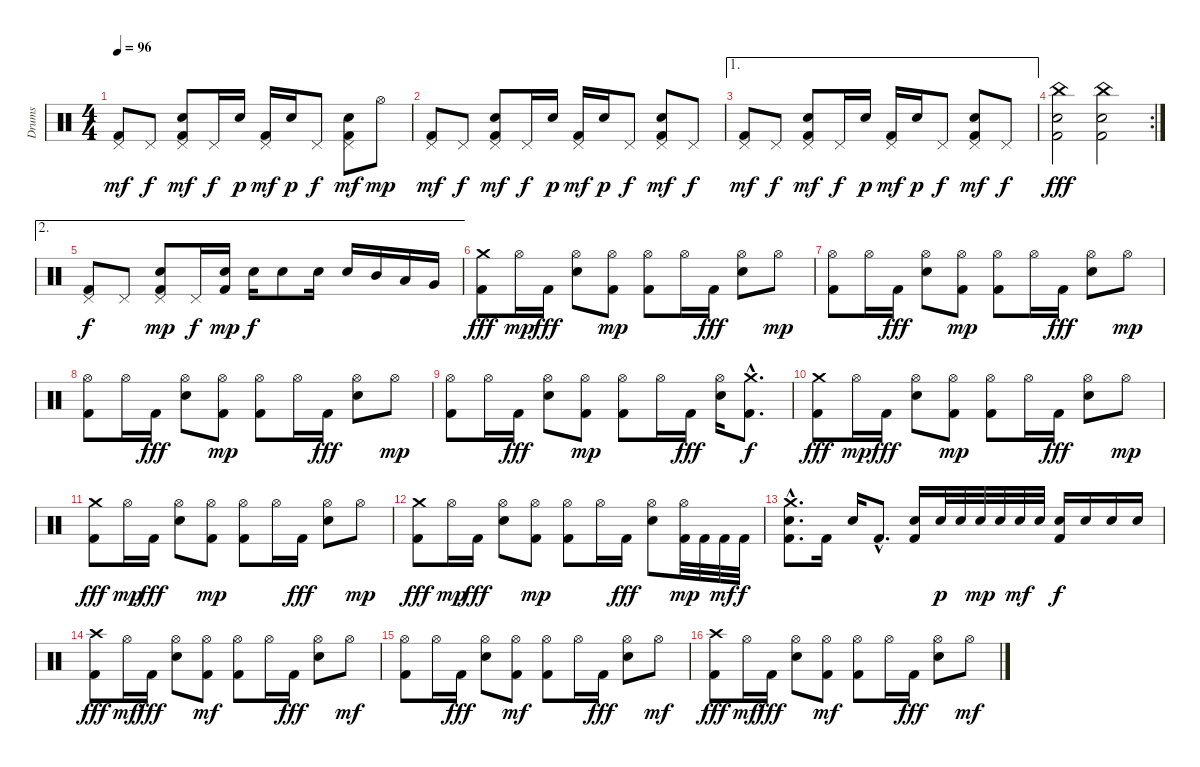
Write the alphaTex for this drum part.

\track ("Drums" "Drums") {instrument percussion}
\staff {score}
\articulation defaults
\ts (4 4)
\tempo 96
\clef neutral
\ks c
("Kick (hit) 2" "Pedal Hi-Hat (hit)").8{dy mf} "Pedal Hi-Hat (hit)".8{dy f} ("Kick (hit) 2" "Pedal Hi-Hat (hit)" "Electric Snare (hit)").8{dy mf} "Pedal Hi-Hat (hit)".16{dy f} "Electric Snare (hit)".16{dy p} ("Kick (hit) 2" "Pedal Hi-Hat (hit)").16{dy mf} "Electric Snare (hit)".16{dy p} "Pedal Hi-Hat (hit)".8{dy f} ("Kick (hit) 2" "Pedal Hi-Hat (hit)" "Electric Snare (hit)").8{dy mf} "Hi-Hat (open)".8{dy mp} |
("Kick (hit) 2" "Pedal Hi-Hat (hit)").8{dy mf} "Pedal Hi-Hat (hit)".8{dy f} ("Kick (hit) 2" "Pedal Hi-Hat (hit)" "Electric Snare (hit)").8{dy mf} "Pedal Hi-Hat (hit)".16{dy f} "Electric Snare (hit)".16{dy p} ("Kick (hit) 2" "Pedal Hi-Hat (hit)").16{dy mf} "Electric Snare (hit)".16{dy p} "Pedal Hi-Hat (hit)".8{dy f} ("Kick (hit) 2" "Pedal Hi-Hat (hit)" "Electric Snare (hit)").8{dy mf} "Pedal Hi-Hat (hit)".8{dy f} |
\ae 1
("Kick (hit) 2" "Pedal Hi-Hat (hit)").8{dy mf} "Pedal Hi-Hat (hit)".8{dy f} ("Kick (hit) 2" "Pedal Hi-Hat (hit)" "Electric Snare (hit)").8{dy mf} "Pedal Hi-Hat (hit)".16{dy f} "Electric Snare (hit)".16{dy p} ("Kick (hit) 2" "Pedal Hi-Hat (hit)").16{dy mf} "Electric Snare (hit)".16{dy p} "Pedal Hi-Hat (hit)".8{dy f} ("Kick (hit) 2" "Pedal Hi-Hat (hit)" "Electric Snare (hit)").8{dy mf} "Pedal Hi-Hat (hit)".8{dy f} |
\rc 2
("Kick (hit) 2" "China (hit)" "Electric Snare (hit)").2{dy fff} ("Kick (hit) 2" "China (hit)" "Electric Snare (hit)").2 |
\ae 2
("Kick (hit) 2" "Pedal Hi-Hat (hit)").8{dy f} "Pedal Hi-Hat (hit)".8 ("Kick (hit) 2" "Pedal Hi-Hat (hit)" "Electric Snare (hit)").8{dy mp} "Pedal Hi-Hat (hit)".16{dy f} ("Kick (hit) 2" "Electric Snare (hit)").16{dy mp} "Snare (hit) 2".16{dy f} "Snare (hit) 2".8 "Snare (hit) 2".16 "Snare (hit) 2".16 "Mid Tom (hit)".16 "Low Tom (hit)".16 "Very Low Tom (hit)".16 |
("Kick (hit) 2" "Crash medium (hit)").8{dy fff} "Hi-Hat (open)".16{dy mp} "Kick (hit) 2".16{dy fff} ("Hi-Hat (open)" "Snare (hit) 2").8 ("Kick (hit) 2" "Hi-Hat (open)").8{dy mp} ("Kick (hit) 2" "Hi-Hat (open)").8 "Hi-Hat (open)".16 "Kick (hit) 2".16{dy fff} ("Hi-Hat (open)" "Snare (hit) 2").8 "Hi-Hat (open)".8{dy mp} |
("Kick (hit) 2" "Hi-Hat (open)").8 "Hi-Hat (open)".16 "Kick (hit) 2".16{dy fff} ("Hi-Hat (open)" "Snare (hit) 2").8 ("Kick (hit) 2" "Hi-Hat (open)").8{dy mp} ("Kick (hit) 2" "Hi-Hat (open)").8 "Hi-Hat (open)".16 "Kick (hit) 2".16{dy fff} ("Hi-Hat (open)" "Snare (hit) 2").8 "Hi-Hat (open)".8{dy mp} |
("Kick (hit) 2" "Hi-Hat (open)").8 "Hi-Hat (open)".16 "Kick (hit) 2".16{dy fff} ("Hi-Hat (open)" "Snare (hit) 2").8 ("Kick (hit) 2" "Hi-Hat (open)").8{dy mp} ("Kick (hit) 2" "Hi-Hat (open)").8 "Hi-Hat (open)".16 "Kick (hit) 2".16{dy fff} ("Hi-Hat (open)" "Snare (hit) 2").8 "Hi-Hat (open)".8{dy mp} |
("Kick (hit) 2" "Hi-Hat (open)").8 "Hi-Hat (open)".16 "Kick (hit) 2".16{dy fff} ("Hi-Hat (open)" "Snare (hit) 2").8 ("Kick (hit) 2" "Hi-Hat (open)").8{dy mp} ("Kick (hit) 2" "Hi-Hat (open)").8 "Hi-Hat (open)".16 "Kick (hit) 2".16{dy fff} ("Hi-Hat (open)" "Snare (hit) 2").16 ("Kick (hit) 2"{hac} "Crash medium (hit)"{hac}).8{d dy f} |
("Kick (hit) 2" "Crash medium (hit)").8{dy fff} "Hi-Hat (open)".16{dy mp} "Kick (hit) 2".16{dy fff} ("Hi-Hat (open)" "Snare (hit) 2").8 ("Kick (hit) 2" "Hi-Hat (open)").8{dy mp} ("Kick (hit) 2" "Hi-Hat (open)").8 "Hi-Hat (open)".16 "Kick (hit) 2".16{dy fff} ("Hi-Hat (open)" "Snare (hit) 2").8 "Hi-Hat (open)".8{dy mp} |
("Kick (hit) 2" "Crash medium (hit)").8{dy fff} "Hi-Hat (open)".16{dy mp} "Kick (hit) 2".16{dy fff} ("Hi-Hat (open)" "Snare (hit) 2").8 ("Kick (hit) 2" "Hi-Hat (open)").8{dy mp} ("Kick (hit) 2" "Hi-Hat (open)").8 "Hi-Hat (open)".16 "Kick (hit) 2".16{dy fff} ("Hi-Hat (open)" "Snare (hit) 2").8 "Hi-Hat (open)".8{dy mp} |
("Kick (hit) 2" "Crash medium (hit)").8{dy fff} "Hi-Hat (open)".16{dy mp} "Kick (hit) 2".16{dy fff} ("Hi-Hat (open)" "Snare (hit) 2").8 ("Kick (hit) 2" "Hi-Hat (open)").8{dy mp} ("Kick (hit) 2" "Hi-Hat (open)").8 "Hi-Hat (open)".16 "Kick (hit) 2".16{dy fff} ("Hi-Hat (open)" "Snare (hit) 2").8 ("Kick (hit) 2" "Hi-Hat (open)").32{dy mp} "Kick (hit) 2".32 "Kick (hit) 2".32{dy mf} "Kick (hit) 2".32{dy f} |
("Kick (hit) 2"{hac} "Crash medium (hit)"{hac} "Snare (hit) 2"{hac}).8{d} "Kick (hit) 2".16 "Snare (hit) 2".16 "Kick (hit) 2"{hac}.8{d} ("Kick (hit) 2" "Snare (hit) 2").16 "Snare (hit) 2".32{dy p} "Snare (hit) 2".32 "Snare (hit) 2".32{dy mp} "Snare (hit) 2".32 "Snare (hit) 2".32{dy mf} "Snare (hit) 2".32 ("Kick (hit) 2" "Snare (hit) 2").16{dy f} "Snare (hit) 2".16 "Snare (hit) 2".16 "Snare (hit) 2".16 |
("Kick (hit) 2" "Crash high (hit)").8{dy fff} "Hi-Hat (open)".16{dy mf} "Kick (hit) 2".16{dy fff} ("Hi-Hat (open)" "Snare (hit) 2").8 ("Kick (hit) 2" "Hi-Hat (open)").8{dy mf} ("Kick (hit) 2" "Hi-Hat (open)").8 "Hi-Hat (open)".16 "Kick (hit) 2".16{dy fff} ("Hi-Hat (open)" "Snare (hit) 2").8 "Hi-Hat (open)".8{dy mf} |
("Kick (hit) 2" "Hi-Hat (open)").8 "Hi-Hat (open)".16 "Kick (hit) 2".16{dy fff} ("Hi-Hat (open)" "Snare (hit) 2").8 ("Kick (hit) 2" "Hi-Hat (open)").8{dy mf} ("Kick (hit) 2" "Hi-Hat (open)").8 "Hi-Hat (open)".16 "Kick (hit) 2".16{dy fff} ("Hi-Hat (open)" "Snare (hit) 2").8 "Hi-Hat (open)".8{dy mf} |
("Kick (hit) 2" "Crash high (hit)").8{dy fff} "Hi-Hat (open)".16{dy mf} "Kick (hit) 2".16{dy fff} ("Hi-Hat (open)" "Snare (hit) 2").8 ("Kick (hit) 2" "Hi-Hat (open)").8{dy mf} ("Kick (hit) 2" "Hi-Hat (open)").8 "Hi-Hat (open)".16 "Kick (hit) 2".16{dy fff} ("Hi-Hat (open)" "Snare (hit) 2").8 "Hi-Hat (open)".8{dy mf}
